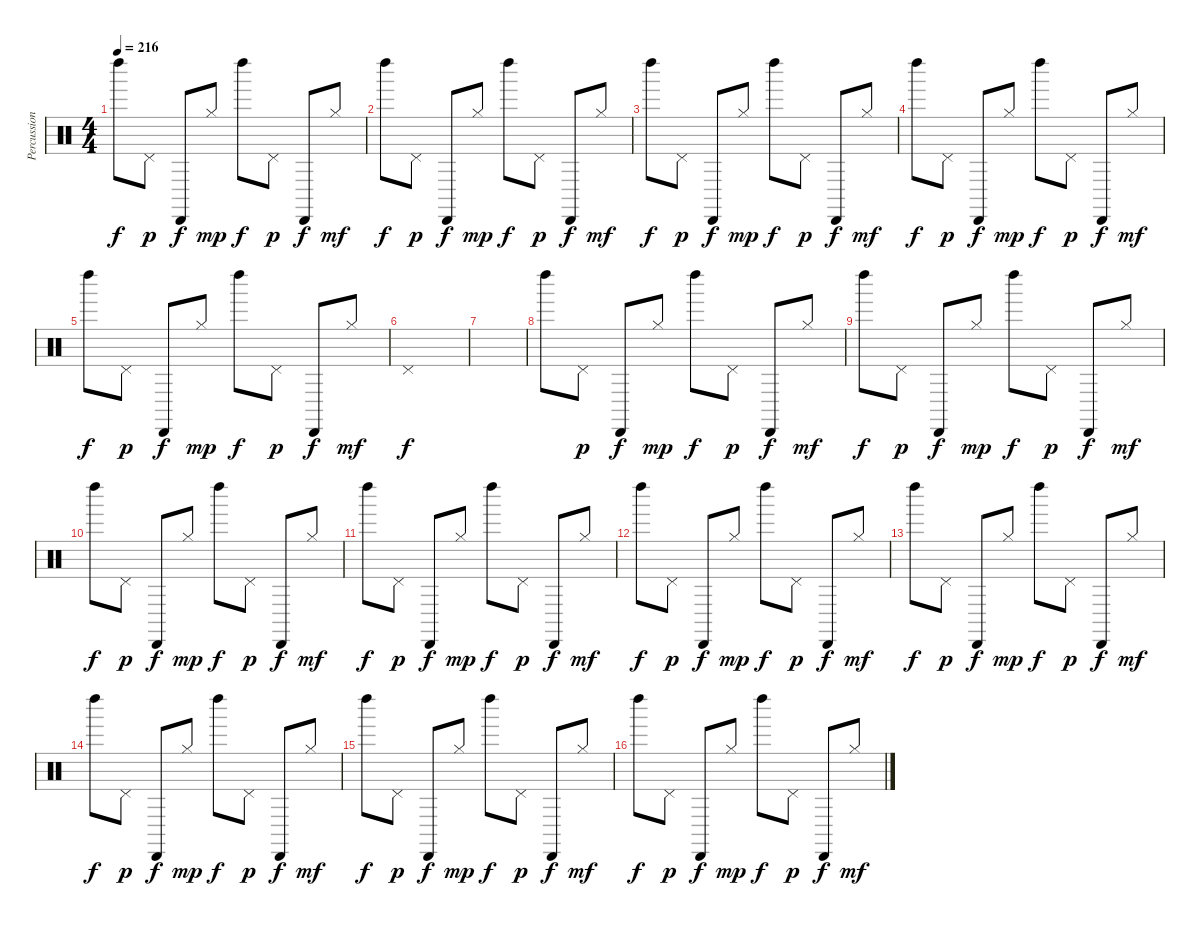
\track ("Percussions" "Percussion") {instrument percussion}
\staff {score}
\articulation defaults
\ts (4 4)
\tempo 216
\clef neutral
\ks c "Left Maraca (hit)".8{dy f} "Pedal Hi-Hat (hit)".8{dy p} "Cabasa (hit)".8{dy f} "Hi-Hat (closed)".8{dy mp} "Left Maraca (hit)".8{dy f} "Pedal Hi-Hat (hit)".8{dy p} "Cabasa (hit)".8{dy f} "Hi-Hat (closed)".8{dy mf}
|
"Left Maraca (hit)".8{dy f} "Pedal Hi-Hat (hit)".8{dy p} "Cabasa (hit)".8{dy f} "Hi-Hat (closed)".8{dy mp} "Left Maraca (hit)".8{dy f} "Pedal Hi-Hat (hit)".8{dy p} "Cabasa (hit)".8{dy f} "Hi-Hat (closed)".8{dy mf} |
"Left Maraca (hit)".8{dy f} "Pedal Hi-Hat (hit)".8{dy p} "Cabasa (hit)".8{dy f} "Hi-Hat (closed)".8{dy mp} "Left Maraca (hit)".8{dy f} "Pedal Hi-Hat (hit)".8{dy p} "Cabasa (hit)".8{dy f} "Hi-Hat (closed)".8{dy mf} |
"Left Maraca (hit)".8{dy f} "Pedal Hi-Hat (hit)".8{dy p} "Cabasa (hit)".8{dy f} "Hi-Hat (closed)".8{dy mp} "Left Maraca (hit)".8{dy f} "Pedal Hi-Hat (hit)".8{dy p} "Cabasa (hit)".8{dy f} "Hi-Hat (closed)".8{dy mf} |
"Left Maraca (hit)".8{dy f} "Pedal Hi-Hat (hit)".8{dy p} "Cabasa (hit)".8{dy f} "Hi-Hat (closed)".8{dy mp} "Left Maraca (hit)".8{dy f} "Pedal Hi-Hat (hit)".8{dy p} "Cabasa (hit)".8{dy f} "Hi-Hat (closed)".8{dy mf} |
"Pedal Hi-Hat (hit)".1{dy f} |
|
"Left Maraca (hit)".8 "Pedal Hi-Hat (hit)".8{dy p} "Cabasa (hit)".8{dy f} "Hi-Hat (closed)".8{dy mp} "Left Maraca (hit)".8{dy f} "Pedal Hi-Hat (hit)".8{dy p} "Cabasa (hit)".8{dy f} "Hi-Hat (closed)".8{dy mf} |
"Left Maraca (hit)".8{dy f} "Pedal Hi-Hat (hit)".8{dy p} "Cabasa (hit)".8{dy f} "Hi-Hat (closed)".8{dy mp} "Left Maraca (hit)".8{dy f} "Pedal Hi-Hat (hit)".8{dy p} "Cabasa (hit)".8{dy f} "Hi-Hat (closed)".8{dy mf} |
"Left Maraca (hit)".8{dy f} "Pedal Hi-Hat (hit)".8{dy p} "Cabasa (hit)".8{dy f} "Hi-Hat (closed)".8{dy mp} "Left Maraca (hit)".8{dy f} "Pedal Hi-Hat (hit)".8{dy p} "Cabasa (hit)".8{dy f} "Hi-Hat (closed)".8{dy mf} |
"Left Maraca (hit)".8{dy f} "Pedal Hi-Hat (hit)".8{dy p} "Cabasa (hit)".8{dy f} "Hi-Hat (closed)".8{dy mp} "Left Maraca (hit)".8{dy f} "Pedal Hi-Hat (hit)".8{dy p} "Cabasa (hit)".8{dy f} "Hi-Hat (closed)".8{dy mf} |
"Left Maraca (hit)".8{dy f} "Pedal Hi-Hat (hit)".8{dy p} "Cabasa (hit)".8{dy f} "Hi-Hat (closed)".8{dy mp} "Left Maraca (hit)".8{dy f} "Pedal Hi-Hat (hit)".8{dy p} "Cabasa (hit)".8{dy f} "Hi-Hat (closed)".8{dy mf} |
"Left Maraca (hit)".8{dy f} "Pedal Hi-Hat (hit)".8{dy p} "Cabasa (hit)".8{dy f} "Hi-Hat (closed)".8{dy mp} "Left Maraca (hit)".8{dy f} "Pedal Hi-Hat (hit)".8{dy p} "Cabasa (hit)".8{dy f} "Hi-Hat (closed)".8{dy mf} |
"Left Maraca (hit)".8{dy f} "Pedal Hi-Hat (hit)".8{dy p} "Cabasa (hit)".8{dy f} "Hi-Hat (closed)".8{dy mp} "Left Maraca (hit)".8{dy f} "Pedal Hi-Hat (hit)".8{dy p} "Cabasa (hit)".8{dy f} "Hi-Hat (closed)".8{dy mf} |
"Left Maraca (hit)".8{dy f} "Pedal Hi-Hat (hit)".8{dy p} "Cabasa (hit)".8{dy f} "Hi-Hat (closed)".8{dy mp} "Left Maraca (hit)".8{dy f} "Pedal Hi-Hat (hit)".8{dy p} "Cabasa (hit)".8{dy f} "Hi-Hat (closed)".8{dy mf} |
"Left Maraca (hit)".8{dy f} "Pedal Hi-Hat (hit)".8{dy p} "Cabasa (hit)".8{dy f} "Hi-Hat (closed)".8{dy mp} "Left Maraca (hit)".8{dy f} "Pedal Hi-Hat (hit)".8{dy p} "Cabasa (hit)".8{dy f} "Hi-Hat (closed)".8{dy mf}
